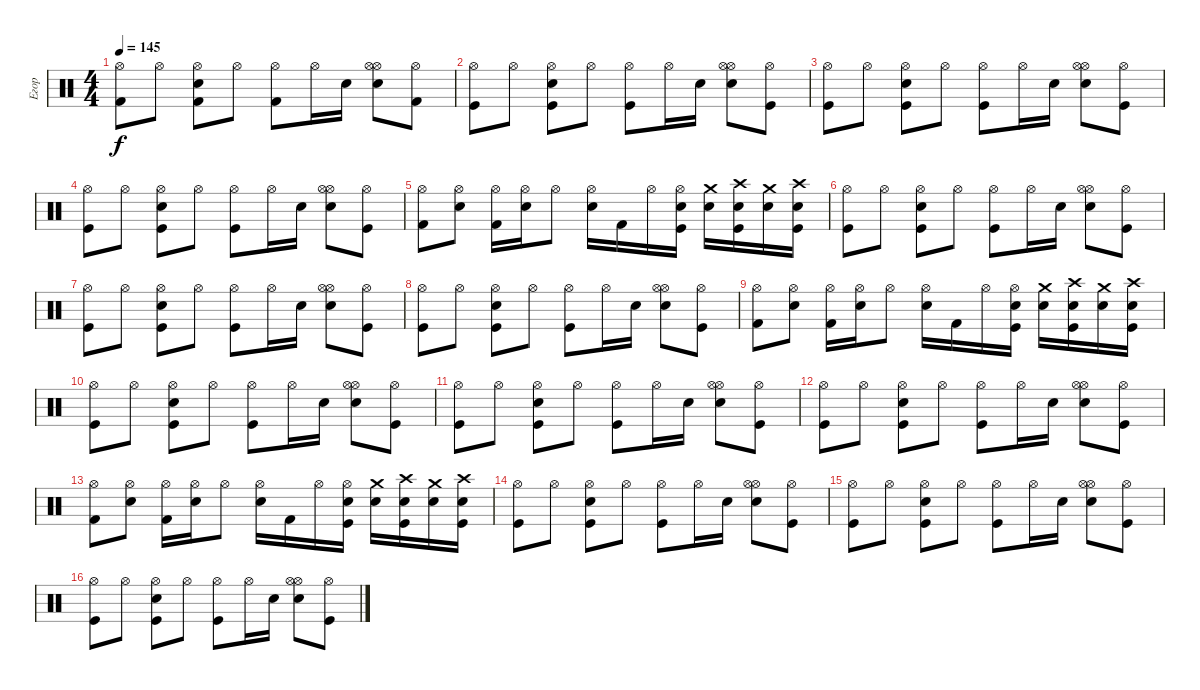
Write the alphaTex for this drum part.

\track ("Егор" "Егор") {instrument percussion}
\staff {score}
\articulation defaults
\ts (4 4)
\tempo 145
\clef neutral
\ks c
("Hi-Hat (open)" "Kick (hit) 2").8{dy f} "Hi-Hat (open)".8 ("Hi-Hat (open)" "Electric Snare (hit)" "Kick (hit) 2").8 "Hi-Hat (open)".8 ("Hi-Hat (open)" "Kick (hit) 2").8 "Hi-Hat (open)".16 "Electric Snare (hit)".16 ("Hi-Hat (open)" "Electric Snare (hit)" "Hi-Hat (open)").8 ("Hi-Hat (open)" "Kick (hit) 2").8 |
("Hi-Hat (open)" "Kick (hit)").8 "Hi-Hat (open)".8 ("Hi-Hat (open)" "Electric Snare (hit)" "Kick (hit)").8 "Hi-Hat (open)".8 ("Hi-Hat (open)" "Kick (hit)").8 "Hi-Hat (open)".16 "Electric Snare (hit)".16 ("Hi-Hat (open)" "Electric Snare (hit)" "Hi-Hat (open)").8 ("Hi-Hat (open)" "Kick (hit)").8 |
("Hi-Hat (open)" "Kick (hit)").8 "Hi-Hat (open)".8 ("Hi-Hat (open)" "Electric Snare (hit)" "Kick (hit)").8 "Hi-Hat (open)".8 ("Hi-Hat (open)" "Kick (hit)").8 "Hi-Hat (open)".16 "Electric Snare (hit)".16 ("Hi-Hat (open)" "Electric Snare (hit)" "Hi-Hat (open)").8 ("Hi-Hat (open)" "Kick (hit)").8 |
("Hi-Hat (open)" "Kick (hit)").8 "Hi-Hat (open)".8 ("Hi-Hat (open)" "Electric Snare (hit)" "Kick (hit)").8 "Hi-Hat (open)".8 ("Hi-Hat (open)" "Kick (hit)").8 "Hi-Hat (open)".16 "Electric Snare (hit)".16 ("Hi-Hat (open)" "Electric Snare (hit)" "Hi-Hat (open)").8 ("Hi-Hat (open)" "Kick (hit)").8 |
("Hi-Hat (open)" "Kick (hit) 2").8 ("Hi-Hat (open)" "Electric Snare (hit)").8 ("Hi-Hat (open)" "Kick (hit) 2").16 ("Hi-Hat (open)" "Electric Snare (hit)").16 "Hi-Hat (open)".8 ("Hi-Hat (open)" "Electric Snare (hit)").16 "Kick (hit) 2".16 "Hi-Hat (open)".16 ("Hi-Hat (open)" "Electric Snare (hit)" "Kick (hit)").16 ("Crash medium (hit)" "Electric Snare (hit)").16 ("Crash high (hit)" "Electric Snare (hit)" "Kick (hit)").16 ("Crash medium (hit)" "Electric Snare (hit)").16 ("Crash high (hit)" "Electric Snare (hit)" "Kick (hit)").16 |
("Hi-Hat (open)" "Kick (hit)").8 "Hi-Hat (open)".8 ("Hi-Hat (open)" "Electric Snare (hit)" "Kick (hit)").8 "Hi-Hat (open)".8 ("Hi-Hat (open)" "Kick (hit)").8 "Hi-Hat (open)".16 "Electric Snare (hit)".16 ("Hi-Hat (open)" "Electric Snare (hit)" "Hi-Hat (open)").8 ("Hi-Hat (open)" "Kick (hit)").8 |
("Hi-Hat (open)" "Kick (hit)").8 "Hi-Hat (open)".8 ("Hi-Hat (open)" "Electric Snare (hit)" "Kick (hit)").8 "Hi-Hat (open)".8 ("Hi-Hat (open)" "Kick (hit)").8 "Hi-Hat (open)".16 "Electric Snare (hit)".16 ("Hi-Hat (open)" "Electric Snare (hit)" "Hi-Hat (open)").8 ("Hi-Hat (open)" "Kick (hit)").8 |
("Hi-Hat (open)" "Kick (hit)").8 "Hi-Hat (open)".8 ("Hi-Hat (open)" "Electric Snare (hit)" "Kick (hit)").8 "Hi-Hat (open)".8 ("Hi-Hat (open)" "Kick (hit)").8 "Hi-Hat (open)".16 "Electric Snare (hit)".16 ("Hi-Hat (open)" "Electric Snare (hit)" "Hi-Hat (open)").8 ("Hi-Hat (open)" "Kick (hit)").8 |
("Hi-Hat (open)" "Kick (hit) 2").8 ("Hi-Hat (open)" "Electric Snare (hit)").8 ("Hi-Hat (open)" "Kick (hit) 2").16 ("Hi-Hat (open)" "Electric Snare (hit)").16 "Hi-Hat (open)".8 ("Hi-Hat (open)" "Electric Snare (hit)").16 "Kick (hit) 2".16 "Hi-Hat (open)".16 ("Hi-Hat (open)" "Electric Snare (hit)" "Kick (hit)").16 ("Crash medium (hit)" "Electric Snare (hit)").16 ("Crash high (hit)" "Electric Snare (hit)" "Kick (hit)").16 ("Crash medium (hit)" "Electric Snare (hit)").16 ("Crash high (hit)" "Electric Snare (hit)" "Kick (hit)").16 |
("Hi-Hat (open)" "Kick (hit)").8 "Hi-Hat (open)".8 ("Hi-Hat (open)" "Electric Snare (hit)" "Kick (hit)").8 "Hi-Hat (open)".8 ("Hi-Hat (open)" "Kick (hit)").8 "Hi-Hat (open)".16 "Electric Snare (hit)".16 ("Hi-Hat (open)" "Electric Snare (hit)" "Hi-Hat (open)").8 ("Hi-Hat (open)" "Kick (hit)").8 |
("Hi-Hat (open)" "Kick (hit)").8 "Hi-Hat (open)".8 ("Hi-Hat (open)" "Electric Snare (hit)" "Kick (hit)").8 "Hi-Hat (open)".8 ("Hi-Hat (open)" "Kick (hit)").8 "Hi-Hat (open)".16 "Electric Snare (hit)".16 ("Hi-Hat (open)" "Electric Snare (hit)" "Hi-Hat (open)").8 ("Hi-Hat (open)" "Kick (hit)").8 |
("Hi-Hat (open)" "Kick (hit)").8 "Hi-Hat (open)".8 ("Hi-Hat (open)" "Electric Snare (hit)" "Kick (hit)").8 "Hi-Hat (open)".8 ("Hi-Hat (open)" "Kick (hit)").8 "Hi-Hat (open)".16 "Electric Snare (hit)".16 ("Hi-Hat (open)" "Electric Snare (hit)" "Hi-Hat (open)").8 ("Hi-Hat (open)" "Kick (hit)").8 |
("Hi-Hat (open)" "Kick (hit) 2").8 ("Hi-Hat (open)" "Electric Snare (hit)").8 ("Hi-Hat (open)" "Kick (hit) 2").16 ("Hi-Hat (open)" "Electric Snare (hit)").16 "Hi-Hat (open)".8 ("Hi-Hat (open)" "Electric Snare (hit)").16 "Kick (hit) 2".16 "Hi-Hat (open)".16 ("Hi-Hat (open)" "Electric Snare (hit)" "Kick (hit)").16 ("Crash medium (hit)" "Electric Snare (hit)").16 ("Crash high (hit)" "Electric Snare (hit)" "Kick (hit)").16 ("Crash medium (hit)" "Electric Snare (hit)").16 ("Crash high (hit)" "Electric Snare (hit)" "Kick (hit)").16 |
("Hi-Hat (open)" "Kick (hit)").8 "Hi-Hat (open)".8 ("Hi-Hat (open)" "Electric Snare (hit)" "Kick (hit)").8 "Hi-Hat (open)".8 ("Hi-Hat (open)" "Kick (hit)").8 "Hi-Hat (open)".16 "Electric Snare (hit)".16 ("Hi-Hat (open)" "Electric Snare (hit)" "Hi-Hat (open)").8 ("Hi-Hat (open)" "Kick (hit)").8 |
("Hi-Hat (open)" "Kick (hit)").8 "Hi-Hat (open)".8 ("Hi-Hat (open)" "Electric Snare (hit)" "Kick (hit)").8 "Hi-Hat (open)".8 ("Hi-Hat (open)" "Kick (hit)").8 "Hi-Hat (open)".16 "Electric Snare (hit)".16 ("Hi-Hat (open)" "Electric Snare (hit)" "Hi-Hat (open)").8 ("Hi-Hat (open)" "Kick (hit)").8 |
("Hi-Hat (open)" "Kick (hit)").8 "Hi-Hat (open)".8 ("Hi-Hat (open)" "Electric Snare (hit)" "Kick (hit)").8 "Hi-Hat (open)".8 ("Hi-Hat (open)" "Kick (hit)").8 "Hi-Hat (open)".16 "Electric Snare (hit)".16 ("Hi-Hat (open)" "Electric Snare (hit)" "Hi-Hat (open)").8 ("Hi-Hat (open)" "Kick (hit)").8
